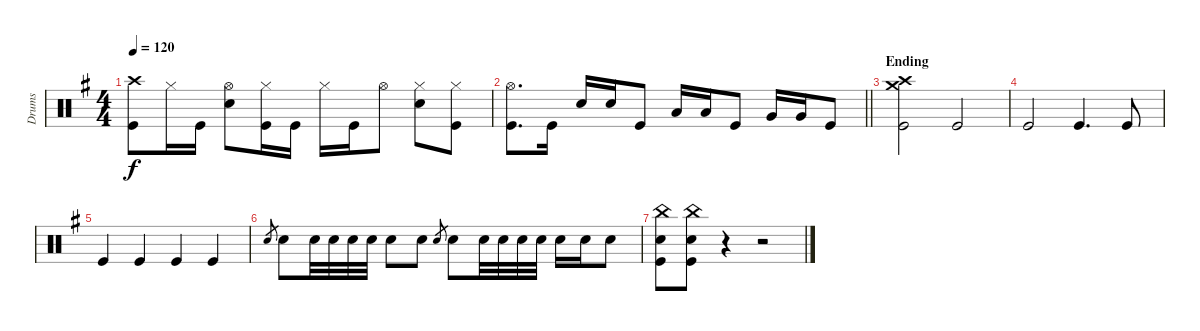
\track ("Drums" "Drums") {instrument percussion}
\staff {score}
\articulation defaults
\ts (4 4)
\tempo 120
\clef neutral
\ks eminor
("Crash high (hit)" "Kick (hit)").8{dy f} "Hi-Hat (closed)".16 "Kick (hit)".16 ("Hi-Hat (open)" "Snare (hit) 2").8 ("Hi-Hat (closed)" "Kick (hit)").16 "Kick (hit)".16 "Hi-Hat (closed)".16 "Kick (hit)".16 "Hi-Hat (open)".8 ("Hi-Hat (closed)" "Snare (hit) 2").8 ("Hi-Hat (closed)" "Kick (hit)").8 |
\barLineRight lightlight
("Hi-Hat (open)" "Kick (hit)").8{d} "Kick (hit)".16 "Snare (hit) 2".16 "Snare (hit) 2".16 "Kick (hit)".8 "Low Tom (hit)".16 "Low Tom (hit)".16 "Kick (hit)".8 "Very Low Tom (hit)".16 "Very Low Tom (hit)".16 "Kick (hit)".8 |
\section ("" "Ending")
("Crash high (hit)" "Crash medium (hit)" "Kick (hit)").2 "Kick (hit)".2 |
"Kick (hit)".2 "Kick (hit)".4{d} "Kick (hit)".8 |
"Kick (hit)".4 "Kick (hit)".4 "Kick (hit)".4 "Kick (hit)".4 |
"Snare (hit) 2".8{gr} "Snare (hit) 2".8 "Snare (hit) 2".32 "Snare (hit) 2".32 "Snare (hit) 2".32 "Snare (hit) 2".32 "Snare (hit) 2".8 "Snare (hit) 2".8 "Snare (hit) 2".8{gr} "Snare (hit) 2".8 "Snare (hit) 2".32 "Snare (hit) 2".32 "Snare (hit) 2".32 "Snare (hit) 2".32 "Snare (hit) 2".16 "Snare (hit) 2".16 "Snare (hit) 2".8 |
("China (hit)" "Snare (hit) 2" "Kick (hit)").8 ("China (hit)" "Snare (hit) 2" "Kick (hit)").8 r.4 r.2
